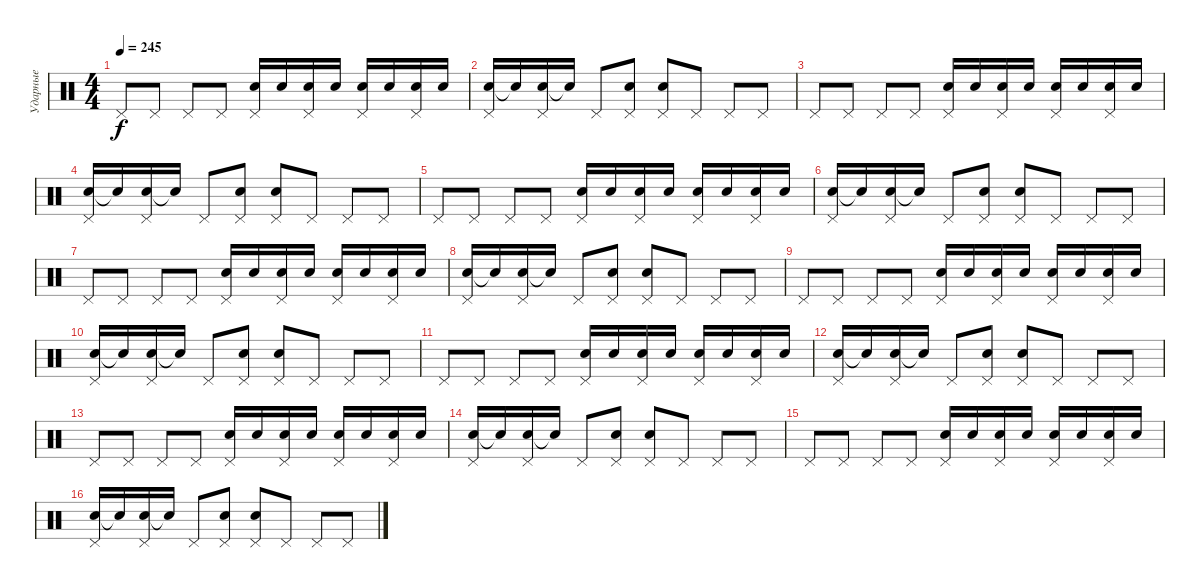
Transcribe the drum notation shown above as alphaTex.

\track ("Ударные" "Ударные") {instrument percussion}
\staff {score}
\articulation defaults
\ts (4 4)
\tempo 245
\clef neutral
\ks c "Pedal Hi-Hat (hit)".8{dy f} "Pedal Hi-Hat (hit)".8 "Pedal Hi-Hat (hit)".8 "Pedal Hi-Hat (hit)".8
("Electric Snare (hit)" "Pedal Hi-Hat (hit)").16 "Electric Snare (hit)".16 ("Electric Snare (hit)" "Pedal Hi-Hat (hit)").16 "Electric Snare (hit)".16 ("Electric Snare (hit)" "Pedal Hi-Hat (hit)").16 "Electric Snare (hit)".16 ("Electric Snare (hit)" "Pedal Hi-Hat (hit)").16 "Electric Snare (hit)".16 |
("Electric Snare (hit)" "Pedal Hi-Hat (hit)").16 "Snare (hit)"{t}.16 ("Electric Snare (hit)" "Pedal Hi-Hat (hit)").16 "Snare (hit)"{t}.16 "Pedal Hi-Hat (hit)".8 ("Electric Snare (hit)" "Pedal Hi-Hat (hit)").8 ("Electric Snare (hit)" "Pedal Hi-Hat (hit)").8 "Pedal Hi-Hat (hit)".8 "Pedal Hi-Hat (hit)".8 "Pedal Hi-Hat (hit)".8 |
"Pedal Hi-Hat (hit)".8 "Pedal Hi-Hat (hit)".8 "Pedal Hi-Hat (hit)".8 "Pedal Hi-Hat (hit)".8 ("Electric Snare (hit)" "Pedal Hi-Hat (hit)").16 "Electric Snare (hit)".16 ("Electric Snare (hit)" "Pedal Hi-Hat (hit)").16 "Electric Snare (hit)".16 ("Electric Snare (hit)" "Pedal Hi-Hat (hit)").16 "Electric Snare (hit)".16 ("Electric Snare (hit)" "Pedal Hi-Hat (hit)").16 "Electric Snare (hit)".16 |
("Electric Snare (hit)" "Pedal Hi-Hat (hit)").16 "Snare (hit)"{t}.16 ("Electric Snare (hit)" "Pedal Hi-Hat (hit)").16 "Snare (hit)"{t}.16 "Pedal Hi-Hat (hit)".8 ("Electric Snare (hit)" "Pedal Hi-Hat (hit)").8 ("Electric Snare (hit)" "Pedal Hi-Hat (hit)").8 "Pedal Hi-Hat (hit)".8 "Pedal Hi-Hat (hit)".8 "Pedal Hi-Hat (hit)".8 |
"Pedal Hi-Hat (hit)".8 "Pedal Hi-Hat (hit)".8 "Pedal Hi-Hat (hit)".8 "Pedal Hi-Hat (hit)".8 ("Electric Snare (hit)" "Pedal Hi-Hat (hit)").16 "Electric Snare (hit)".16 ("Electric Snare (hit)" "Pedal Hi-Hat (hit)").16 "Electric Snare (hit)".16 ("Electric Snare (hit)" "Pedal Hi-Hat (hit)").16 "Electric Snare (hit)".16 ("Electric Snare (hit)" "Pedal Hi-Hat (hit)").16 "Electric Snare (hit)".16 |
("Electric Snare (hit)" "Pedal Hi-Hat (hit)").16 "Snare (hit)"{t}.16 ("Electric Snare (hit)" "Pedal Hi-Hat (hit)").16 "Snare (hit)"{t}.16 "Pedal Hi-Hat (hit)".8 ("Electric Snare (hit)" "Pedal Hi-Hat (hit)").8 ("Electric Snare (hit)" "Pedal Hi-Hat (hit)").8 "Pedal Hi-Hat (hit)".8 "Pedal Hi-Hat (hit)".8 "Pedal Hi-Hat (hit)".8 |
"Pedal Hi-Hat (hit)".8 "Pedal Hi-Hat (hit)".8 "Pedal Hi-Hat (hit)".8 "Pedal Hi-Hat (hit)".8 ("Electric Snare (hit)" "Pedal Hi-Hat (hit)").16 "Electric Snare (hit)".16 ("Electric Snare (hit)" "Pedal Hi-Hat (hit)").16 "Electric Snare (hit)".16 ("Electric Snare (hit)" "Pedal Hi-Hat (hit)").16 "Electric Snare (hit)".16 ("Electric Snare (hit)" "Pedal Hi-Hat (hit)").16 "Electric Snare (hit)".16 |
("Electric Snare (hit)" "Pedal Hi-Hat (hit)").16 "Snare (hit)"{t}.16 ("Electric Snare (hit)" "Pedal Hi-Hat (hit)").16 "Snare (hit)"{t}.16 "Pedal Hi-Hat (hit)".8 ("Electric Snare (hit)" "Pedal Hi-Hat (hit)").8 ("Electric Snare (hit)" "Pedal Hi-Hat (hit)").8 "Pedal Hi-Hat (hit)".8 "Pedal Hi-Hat (hit)".8 "Pedal Hi-Hat (hit)".8 |
"Pedal Hi-Hat (hit)".8 "Pedal Hi-Hat (hit)".8 "Pedal Hi-Hat (hit)".8 "Pedal Hi-Hat (hit)".8 ("Electric Snare (hit)" "Pedal Hi-Hat (hit)").16 "Electric Snare (hit)".16 ("Electric Snare (hit)" "Pedal Hi-Hat (hit)").16 "Electric Snare (hit)".16 ("Electric Snare (hit)" "Pedal Hi-Hat (hit)").16 "Electric Snare (hit)".16 ("Electric Snare (hit)" "Pedal Hi-Hat (hit)").16 "Electric Snare (hit)".16 |
("Electric Snare (hit)" "Pedal Hi-Hat (hit)").16 "Snare (hit)"{t}.16 ("Electric Snare (hit)" "Pedal Hi-Hat (hit)").16 "Snare (hit)"{t}.16 "Pedal Hi-Hat (hit)".8 ("Electric Snare (hit)" "Pedal Hi-Hat (hit)").8 ("Electric Snare (hit)" "Pedal Hi-Hat (hit)").8 "Pedal Hi-Hat (hit)".8 "Pedal Hi-Hat (hit)".8 "Pedal Hi-Hat (hit)".8 |
"Pedal Hi-Hat (hit)".8 "Pedal Hi-Hat (hit)".8 "Pedal Hi-Hat (hit)".8 "Pedal Hi-Hat (hit)".8 ("Electric Snare (hit)" "Pedal Hi-Hat (hit)").16 "Electric Snare (hit)".16 ("Electric Snare (hit)" "Pedal Hi-Hat (hit)").16 "Electric Snare (hit)".16 ("Electric Snare (hit)" "Pedal Hi-Hat (hit)").16 "Electric Snare (hit)".16 ("Electric Snare (hit)" "Pedal Hi-Hat (hit)").16 "Electric Snare (hit)".16 |
("Electric Snare (hit)" "Pedal Hi-Hat (hit)").16 "Snare (hit)"{t}.16 ("Electric Snare (hit)" "Pedal Hi-Hat (hit)").16 "Snare (hit)"{t}.16 "Pedal Hi-Hat (hit)".8 ("Electric Snare (hit)" "Pedal Hi-Hat (hit)").8 ("Electric Snare (hit)" "Pedal Hi-Hat (hit)").8 "Pedal Hi-Hat (hit)".8 "Pedal Hi-Hat (hit)".8 "Pedal Hi-Hat (hit)".8 |
"Pedal Hi-Hat (hit)".8 "Pedal Hi-Hat (hit)".8 "Pedal Hi-Hat (hit)".8 "Pedal Hi-Hat (hit)".8 ("Electric Snare (hit)" "Pedal Hi-Hat (hit)").16 "Electric Snare (hit)".16 ("Electric Snare (hit)" "Pedal Hi-Hat (hit)").16 "Electric Snare (hit)".16 ("Electric Snare (hit)" "Pedal Hi-Hat (hit)").16 "Electric Snare (hit)".16 ("Electric Snare (hit)" "Pedal Hi-Hat (hit)").16 "Electric Snare (hit)".16 |
("Electric Snare (hit)" "Pedal Hi-Hat (hit)").16 "Snare (hit)"{t}.16 ("Electric Snare (hit)" "Pedal Hi-Hat (hit)").16 "Snare (hit)"{t}.16 "Pedal Hi-Hat (hit)".8 ("Electric Snare (hit)" "Pedal Hi-Hat (hit)").8 ("Electric Snare (hit)" "Pedal Hi-Hat (hit)").8 "Pedal Hi-Hat (hit)".8 "Pedal Hi-Hat (hit)".8 "Pedal Hi-Hat (hit)".8 |
"Pedal Hi-Hat (hit)".8 "Pedal Hi-Hat (hit)".8 "Pedal Hi-Hat (hit)".8 "Pedal Hi-Hat (hit)".8 ("Electric Snare (hit)" "Pedal Hi-Hat (hit)").16 "Electric Snare (hit)".16 ("Electric Snare (hit)" "Pedal Hi-Hat (hit)").16 "Electric Snare (hit)".16 ("Electric Snare (hit)" "Pedal Hi-Hat (hit)").16 "Electric Snare (hit)".16 ("Electric Snare (hit)" "Pedal Hi-Hat (hit)").16 "Electric Snare (hit)".16 |
("Electric Snare (hit)" "Pedal Hi-Hat (hit)").16 "Snare (hit)"{t}.16 ("Electric Snare (hit)" "Pedal Hi-Hat (hit)").16 "Snare (hit)"{t}.16 "Pedal Hi-Hat (hit)".8 ("Electric Snare (hit)" "Pedal Hi-Hat (hit)").8 ("Electric Snare (hit)" "Pedal Hi-Hat (hit)").8 "Pedal Hi-Hat (hit)".8 "Pedal Hi-Hat (hit)".8 "Pedal Hi-Hat (hit)".8
